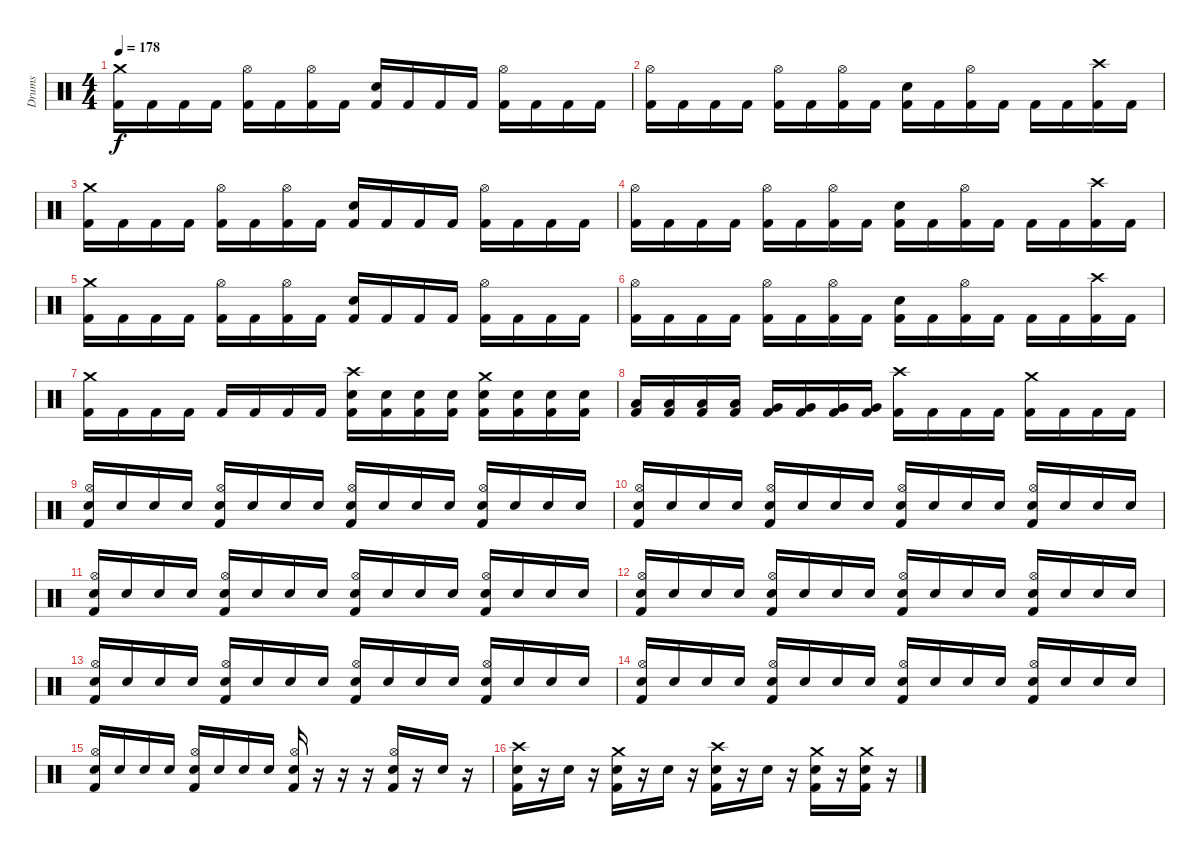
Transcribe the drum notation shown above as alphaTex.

\track ("Drums" "Drums") {instrument percussion}
\staff {score}
\articulation defaults
\ts (4 4)
\tempo 178
\clef neutral
\ks c
("Crash medium (hit)" "Kick (hit) 2").16{dy f} "Kick (hit) 2".16 "Kick (hit) 2".16 "Kick (hit) 2".16 ("Hi-Hat (open)" "Kick (hit) 2").16 "Kick (hit) 2".16 ("Hi-Hat (open)" "Kick (hit) 2").16 "Kick (hit) 2".16 ("Electric Snare (hit)" "Kick (hit) 2").16 "Kick (hit) 2".16 "Kick (hit) 2".16 "Kick (hit) 2".16 ("Hi-Hat (open)" "Kick (hit) 2").16 "Kick (hit) 2".16 "Kick (hit) 2".16 "Kick (hit) 2".16 |
("Hi-Hat (open)" "Kick (hit) 2").16 "Kick (hit) 2".16 "Kick (hit) 2".16 "Kick (hit) 2".16 ("Hi-Hat (open)" "Kick (hit) 2").16 "Kick (hit) 2".16 ("Hi-Hat (open)" "Kick (hit) 2").16 "Kick (hit) 2".16 ("Electric Snare (hit)" "Kick (hit) 2").16 "Kick (hit) 2".16 ("Hi-Hat (open)" "Kick (hit) 2").16 "Kick (hit) 2".16 "Kick (hit) 2".16 "Kick (hit) 2".16 ("Crash high (hit)" "Kick (hit) 2").16 "Kick (hit) 2".16 |
("Crash medium (hit)" "Kick (hit) 2").16 "Kick (hit) 2".16 "Kick (hit) 2".16 "Kick (hit) 2".16 ("Hi-Hat (open)" "Kick (hit) 2").16 "Kick (hit) 2".16 ("Hi-Hat (open)" "Kick (hit) 2").16 "Kick (hit) 2".16 ("Electric Snare (hit)" "Kick (hit) 2").16 "Kick (hit) 2".16 "Kick (hit) 2".16 "Kick (hit) 2".16 ("Hi-Hat (open)" "Kick (hit) 2").16 "Kick (hit) 2".16 "Kick (hit) 2".16 "Kick (hit) 2".16 |
("Hi-Hat (open)" "Kick (hit) 2").16 "Kick (hit) 2".16 "Kick (hit) 2".16 "Kick (hit) 2".16 ("Hi-Hat (open)" "Kick (hit) 2").16 "Kick (hit) 2".16 ("Hi-Hat (open)" "Kick (hit) 2").16 "Kick (hit) 2".16 ("Electric Snare (hit)" "Kick (hit) 2").16 "Kick (hit) 2".16 ("Hi-Hat (open)" "Kick (hit) 2").16 "Kick (hit) 2".16 "Kick (hit) 2".16 "Kick (hit) 2".16 ("Crash high (hit)" "Kick (hit) 2").16 "Kick (hit) 2".16 |
("Crash medium (hit)" "Kick (hit) 2").16 "Kick (hit) 2".16 "Kick (hit) 2".16 "Kick (hit) 2".16 ("Hi-Hat (open)" "Kick (hit) 2").16 "Kick (hit) 2".16 ("Hi-Hat (open)" "Kick (hit) 2").16 "Kick (hit) 2".16 ("Electric Snare (hit)" "Kick (hit) 2").16 "Kick (hit) 2".16 "Kick (hit) 2".16 "Kick (hit) 2".16 ("Hi-Hat (open)" "Kick (hit) 2").16 "Kick (hit) 2".16 "Kick (hit) 2".16 "Kick (hit) 2".16 |
("Hi-Hat (open)" "Kick (hit) 2").16 "Kick (hit) 2".16 "Kick (hit) 2".16 "Kick (hit) 2".16 ("Hi-Hat (open)" "Kick (hit) 2").16 "Kick (hit) 2".16 ("Hi-Hat (open)" "Kick (hit) 2").16 "Kick (hit) 2".16 ("Electric Snare (hit)" "Kick (hit) 2").16 "Kick (hit) 2".16 ("Hi-Hat (open)" "Kick (hit) 2").16 "Kick (hit) 2".16 "Kick (hit) 2".16 "Kick (hit) 2".16 ("Crash high (hit)" "Kick (hit) 2").16 "Kick (hit) 2".16 |
("Crash medium (hit)" "Kick (hit) 2").16 "Kick (hit) 2".16 "Kick (hit) 2".16 "Kick (hit) 2".16 "Kick (hit) 2".16 "Kick (hit) 2".16 "Kick (hit) 2".16 "Kick (hit) 2".16 ("Crash high (hit)" "Electric Snare (hit)" "Kick (hit) 2").16 ("Electric Snare (hit)" "Kick (hit) 2").16 ("Electric Snare (hit)" "Kick (hit) 2").16 ("Electric Snare (hit)" "Kick (hit) 2").16 ("Crash medium (hit)" "Electric Snare (hit)" "Kick (hit) 2").16 ("Electric Snare (hit)" "Kick (hit) 2").16 ("Electric Snare (hit)" "Kick (hit) 2").16 ("Electric Snare (hit)" "Kick (hit) 2").16 |
("Low Tom (hit)" "Kick (hit) 2").16 ("Low Tom (hit)" "Kick (hit) 2").16 ("Low Tom (hit)" "Kick (hit) 2").16 ("Low Tom (hit)" "Kick (hit) 2").16 ("Very Low Tom (hit)" "Kick (hit) 2").16 ("Very Low Tom (hit)" "Kick (hit) 2").16 ("Very Low Tom (hit)" "Kick (hit) 2").16 ("Very Low Tom (hit)" "Kick (hit) 2").16 ("Crash high (hit)" "Kick (hit) 2").16 "Kick (hit) 2".16 "Kick (hit) 2".16 "Kick (hit) 2".16 ("Crash medium (hit)" "Kick (hit) 2").16 "Kick (hit) 2".16 "Kick (hit) 2".16 "Kick (hit) 2".16 |
("Hi-Hat (open)" "Electric Snare (hit)" "Kick (hit) 2").16 "Electric Snare (hit)".16 "Electric Snare (hit)".16 "Electric Snare (hit)".16 ("Hi-Hat (open)" "Electric Snare (hit)" "Kick (hit) 2").16 "Electric Snare (hit)".16 "Electric Snare (hit)".16 "Electric Snare (hit)".16 ("Hi-Hat (open)" "Electric Snare (hit)" "Kick (hit) 2").16 "Electric Snare (hit)".16 "Electric Snare (hit)".16 "Electric Snare (hit)".16 ("Hi-Hat (open)" "Electric Snare (hit)" "Kick (hit) 2").16 "Electric Snare (hit)".16 "Electric Snare (hit)".16 "Electric Snare (hit)".16 |
("Hi-Hat (open)" "Electric Snare (hit)" "Kick (hit) 2").16 "Electric Snare (hit)".16 "Electric Snare (hit)".16 "Electric Snare (hit)".16 ("Hi-Hat (open)" "Electric Snare (hit)" "Kick (hit) 2").16 "Electric Snare (hit)".16 "Electric Snare (hit)".16 "Electric Snare (hit)".16 ("Hi-Hat (open)" "Electric Snare (hit)" "Kick (hit) 2").16 "Electric Snare (hit)".16 "Electric Snare (hit)".16 "Electric Snare (hit)".16 ("Hi-Hat (open)" "Electric Snare (hit)" "Kick (hit) 2").16 "Electric Snare (hit)".16 "Electric Snare (hit)".16 "Electric Snare (hit)".16 |
("Hi-Hat (open)" "Electric Snare (hit)" "Kick (hit) 2").16 "Electric Snare (hit)".16 "Electric Snare (hit)".16 "Electric Snare (hit)".16 ("Hi-Hat (open)" "Electric Snare (hit)" "Kick (hit) 2").16 "Electric Snare (hit)".16 "Electric Snare (hit)".16 "Electric Snare (hit)".16 ("Hi-Hat (open)" "Electric Snare (hit)" "Kick (hit) 2").16 "Electric Snare (hit)".16 "Electric Snare (hit)".16 "Electric Snare (hit)".16 ("Hi-Hat (open)" "Electric Snare (hit)" "Kick (hit) 2").16 "Electric Snare (hit)".16 "Electric Snare (hit)".16 "Electric Snare (hit)".16 |
("Hi-Hat (open)" "Electric Snare (hit)" "Kick (hit) 2").16 "Electric Snare (hit)".16 "Electric Snare (hit)".16 "Electric Snare (hit)".16 ("Hi-Hat (open)" "Electric Snare (hit)" "Kick (hit) 2").16 "Electric Snare (hit)".16 "Electric Snare (hit)".16 "Electric Snare (hit)".16 ("Hi-Hat (open)" "Electric Snare (hit)" "Kick (hit) 2").16 "Electric Snare (hit)".16 "Electric Snare (hit)".16 "Electric Snare (hit)".16 ("Hi-Hat (open)" "Electric Snare (hit)" "Kick (hit) 2").16 "Electric Snare (hit)".16 "Electric Snare (hit)".16 "Electric Snare (hit)".16 |
("Hi-Hat (open)" "Electric Snare (hit)" "Kick (hit) 2").16 "Electric Snare (hit)".16 "Electric Snare (hit)".16 "Electric Snare (hit)".16 ("Hi-Hat (open)" "Electric Snare (hit)" "Kick (hit) 2").16 "Electric Snare (hit)".16 "Electric Snare (hit)".16 "Electric Snare (hit)".16 ("Hi-Hat (open)" "Electric Snare (hit)" "Kick (hit) 2").16 "Electric Snare (hit)".16 "Electric Snare (hit)".16 "Electric Snare (hit)".16 ("Hi-Hat (open)" "Electric Snare (hit)" "Kick (hit) 2").16 "Electric Snare (hit)".16 "Electric Snare (hit)".16 "Electric Snare (hit)".16 |
("Hi-Hat (open)" "Electric Snare (hit)" "Kick (hit) 2").16 "Electric Snare (hit)".16 "Electric Snare (hit)".16 "Electric Snare (hit)".16 ("Hi-Hat (open)" "Electric Snare (hit)" "Kick (hit) 2").16 "Electric Snare (hit)".16 "Electric Snare (hit)".16 "Electric Snare (hit)".16 ("Hi-Hat (open)" "Electric Snare (hit)" "Kick (hit) 2").16 "Electric Snare (hit)".16 "Electric Snare (hit)".16 "Electric Snare (hit)".16 ("Hi-Hat (open)" "Electric Snare (hit)" "Kick (hit) 2").16 "Electric Snare (hit)".16 "Electric Snare (hit)".16 "Electric Snare (hit)".16 |
("Hi-Hat (open)" "Electric Snare (hit)" "Kick (hit) 2").16 "Electric Snare (hit)".16 "Electric Snare (hit)".16 "Electric Snare (hit)".16 ("Hi-Hat (open)" "Electric Snare (hit)" "Kick (hit) 2").16 "Electric Snare (hit)".16 "Electric Snare (hit)".16 "Electric Snare (hit)".16 ("Hi-Hat (open)" "Electric Snare (hit)" "Kick (hit) 2").16 r.16 r.16 r.16 ("Hi-Hat (open)" "Electric Snare (hit)" "Kick (hit) 2").16 r.16 "Electric Snare (hit)".16 r.16 |
("Crash high (hit)" "Electric Snare (hit)" "Kick (hit) 2").16 r.16 "Electric Snare (hit)".16 r.16 ("Crash medium (hit)" "Electric Snare (hit)" "Kick (hit) 2").16 r.16 "Electric Snare (hit)".16 r.16 ("Crash high (hit)" "Electric Snare (hit)" "Kick (hit) 2").16 r.16 "Electric Snare (hit)".16 r.16 ("Crash medium (hit)" "Electric Snare (hit)" "Kick (hit) 2").16 r.16 ("Crash medium (hit)" "Electric Snare (hit)" "Kick (hit) 2").16 r.16
